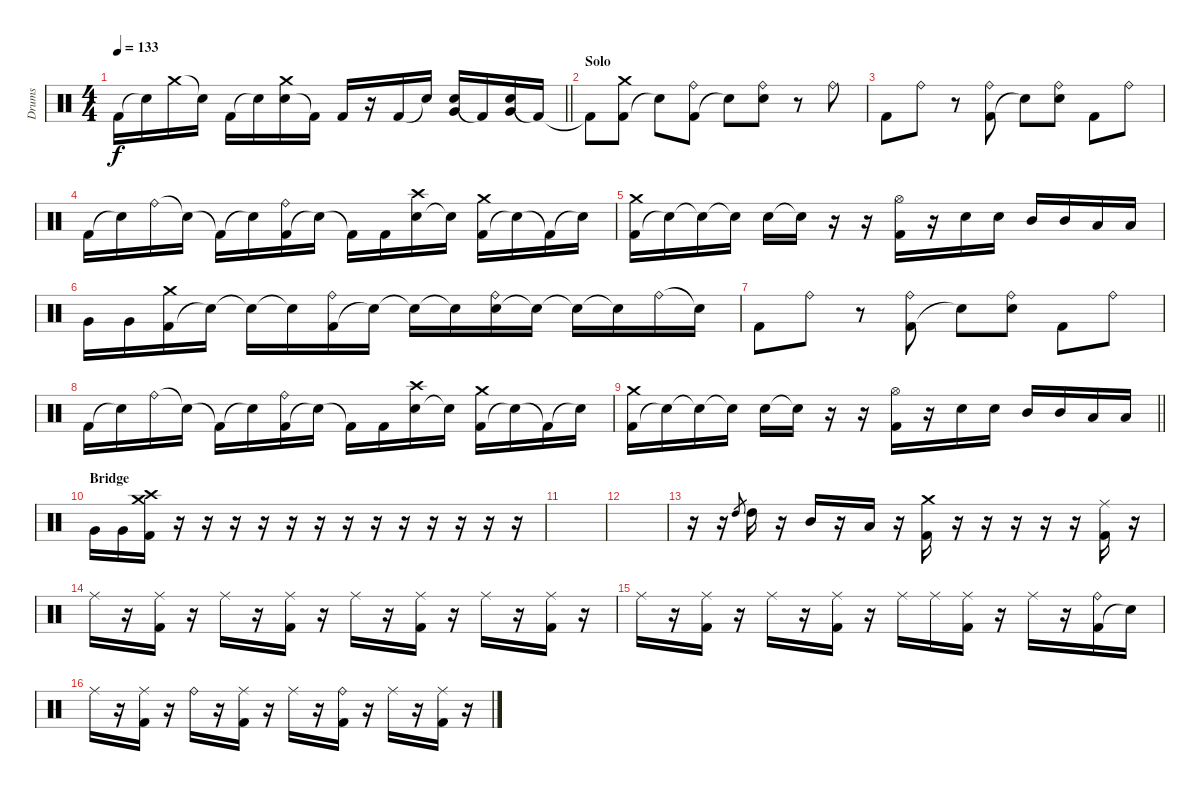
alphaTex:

\track ("Drums" "Drums") {instrument percussion}
\staff {score}
\articulation defaults
\ts (4 4)
\tempo 133
\clef neutral
\barLineRight lightlight
\ks c "Kick (hit) 2".16{dy f} "Snare (hit)"{t}.16 "Crash medium (hit)".16 "Snare (hit)"{t}.16 "Kick (hit) 2".16 "Snare (hit)"{t}.16
("Electric Snare (hit)" "Crash medium (hit)").16 "Kick (hit) 2"{t}.16 "Kick (hit) 2".16 r.16 "Kick (hit) 2".16 "Electric Snare (hit)"{t}.16 ("Electric Snare (hit)" "Very Low Tom (hit)").16 "Kick (hit) 2"{t}.16 ("Electric Snare (hit)" "Very Low Tom (hit)").16 "Kick (hit) 2"{t}.16 |
\section ("" "Solo")
"Kick (hit) 2"{t}.8 ("Kick (hit) 2" "Crash medium (hit)").8 "Snare (hit)"{t}.8 ("Kick (hit) 2" "Ride (bell)").8 "Snare (hit)"{t}.8 ("Electric Snare (hit)" "Ride (bell)").8 r.8 "Ride (bell)".8 |
"Kick (hit) 2".8 "Ride (bell)".8 r.8 ("Kick (hit) 2" "Ride (bell)").8 "Snare (hit)"{t}.8 ("Electric Snare (hit)" "Ride (bell)").8 "Kick (hit) 2".8 "Ride (bell)".8 |
"Kick (hit) 2".16 "Snare (hit)"{t}.16 "Ride (bell)".16 "Snare (hit)"{t}.16 "Kick (hit) 2"{t}.16 "Snare (hit)"{t}.16 ("Kick (hit) 2" "Ride (bell)").16 "Snare (hit)"{t}.16 "Kick (hit) 2"{t}.16 "Kick (hit) 2".16 ("Electric Snare (hit)" "Crash high (hit)").16 "Snare (hit)"{t}.16 ("Kick (hit) 2" "Crash medium (hit)").16 "Snare (hit)"{t}.16 "Kick (hit) 2"{t}.16 "Snare (hit)"{t}.16 |
("Kick (hit) 2" "Crash medium (hit)").16 "Snare (hit)"{t}.16 "Electric Snare (hit)"{t}.16 "Snare (hit)"{t}.16 "Electric Snare (hit)".16 "Snare (hit)"{t}.16 r.16 r.16 ("Kick (hit) 2" "Hi-Hat (open)").16 r.16 "Electric Snare (hit)".16 "Electric Snare (hit)".16 "Mid Tom (hit)".16 "Mid Tom (hit)".16 "Low Tom (hit)".16 "Low Tom (hit)".16 |
"Very Low Tom (hit)".16 "Very Low Tom (hit)".16 ("Kick (hit) 2" "Crash medium (hit)").16 "Snare (hit)"{t}.16 "Snare (hit)"{t}.16 "Snare (hit)"{t}.16 ("Kick (hit) 2" "Ride (bell)").16 "Snare (hit)"{t}.16 "Snare (hit)"{t}.16 "Snare (hit)"{t}.16 ("Electric Snare (hit)" "Ride (bell)").16 "Snare (hit)"{t}.16 "Snare (hit)"{t}.16 "Snare (hit)"{t}.16 "Ride (bell)".16 "Snare (hit)"{t}.16 |
"Kick (hit) 2".8 "Ride (bell)".8 r.8 ("Kick (hit) 2" "Ride (bell)").8 "Snare (hit)"{t}.8 ("Electric Snare (hit)" "Ride (bell)").8 "Kick (hit) 2".8 "Ride (bell)".8 |
"Kick (hit) 2".16 "Snare (hit)"{t}.16 "Ride (bell)".16 "Snare (hit)"{t}.16 "Kick (hit) 2"{t}.16 "Snare (hit)"{t}.16 ("Kick (hit) 2" "Ride (bell)").16 "Snare (hit)"{t}.16 "Kick (hit) 2"{t}.16 "Kick (hit) 2".16 ("Electric Snare (hit)" "Crash high (hit)").16 "Snare (hit)"{t}.16 ("Kick (hit) 2" "Crash medium (hit)").16 "Snare (hit)"{t}.16 "Kick (hit) 2"{t}.16 "Snare (hit)"{t}.16 |
\barLineRight lightlight
("Kick (hit) 2" "Crash medium (hit)").16 "Snare (hit)"{t}.16 "Electric Snare (hit)"{t}.16 "Snare (hit)"{t}.16 "Electric Snare (hit)".16 "Snare (hit)"{t}.16 r.16 r.16 ("Kick (hit) 2" "Hi-Hat (open)").16 r.16 "Electric Snare (hit)".16 "Electric Snare (hit)".16 "Mid Tom (hit)".16 "Mid Tom (hit)".16 "Low Tom (hit)".16 "Low Tom (hit)".16 |
\section ("" "Bridge")
"Very Low Tom (hit)".16 "Very Low Tom (hit)".16 ("Kick (hit) 2" "Crash medium (hit)" "Crash high (hit)").16 r.16 r.16 r.16 r.16 r.16 r.16 r.16 r.16 r.16 r.16 r.16 r.16 r.16 |
|
|
r.16 r.16 "High Tom (hit)".8{gr} "High Tom (hit)".16 r.16 "Mid Tom (hit)".16 r.16 "Low Tom (hit)".16 r.16 ("Kick (hit) 2" "Crash medium (hit)").16 r.16 r.16 r.16 r.16 r.16 ("Kick (hit) 2" "Ride (middle)").16 r.16 |
"Ride (middle)".16 r.16 ("Kick (hit) 2" "Ride (middle)").16 r.16 "Ride (middle)".16 r.16 ("Kick (hit) 2" "Ride (middle)").16 r.16 "Ride (middle)".16 r.16 ("Kick (hit) 2" "Ride (middle)").16 r.16 "Ride (middle)".16 r.16 ("Kick (hit) 2" "Ride (middle)").16 r.16 |
"Ride (middle)".16 r.16 ("Kick (hit) 2" "Ride (middle)").16 r.16 "Ride (middle)".16 r.16 ("Kick (hit) 2" "Ride (middle)").16 r.16 "Ride (middle)".16 "Ride (middle)".16 ("Kick (hit) 2" "Ride (middle)").16 r.16 "Ride (middle)".16 r.16 ("Kick (hit) 2" "Ride (bell)").16 "Snare (hit)"{t}.16 |
"Ride (middle)".16 r.16 ("Kick (hit) 2" "Ride (middle)").16 r.16 "Ride (bell)".16 r.16 ("Kick (hit) 2" "Ride (middle)").16 r.16 "Ride (middle)".16 r.16 ("Kick (hit) 2" "Ride (bell)").16 r.16 "Ride (middle)".16 r.16 ("Kick (hit) 2" "Ride (middle)").16 r.16
